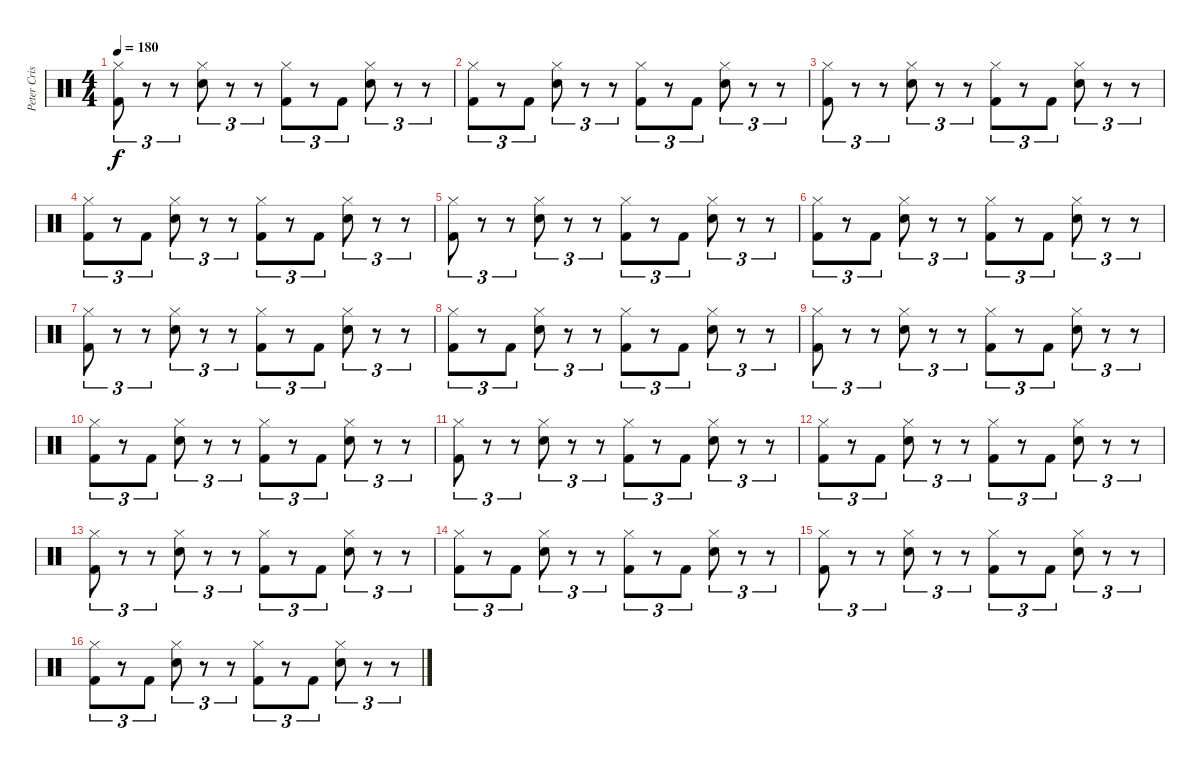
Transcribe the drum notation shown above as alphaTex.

\track ("Peter Criss" "Peter Cris") {instrument percussion}
\staff {score}
\articulation defaults
\ts (4 4)
\tempo 180
\clef neutral
\ks c
("Hi-Hat (closed)" "Kick (hit) 2").8{tu (3 2) dy f} r.8{tu (3 2)} r.8{tu (3 2)} ("Hi-Hat (closed)" "Electric Snare (hit)").8{tu (3 2)} r.8{tu (3 2)} r.8{tu (3 2)} ("Hi-Hat (closed)" "Kick (hit) 2").8{tu (3 2)} r.8{tu (3 2)} "Kick (hit) 2".8{tu (3 2)} ("Hi-Hat (closed)" "Electric Snare (hit)").8{tu (3 2)} r.8{tu (3 2)} r.8{tu (3 2)} |
("Hi-Hat (closed)" "Kick (hit) 2").8{tu (3 2)} r.8{tu (3 2)} "Kick (hit) 2".8{tu (3 2)} ("Hi-Hat (closed)" "Electric Snare (hit)").8{tu (3 2)} r.8{tu (3 2)} r.8{tu (3 2)} ("Hi-Hat (closed)" "Kick (hit) 2").8{tu (3 2)} r.8{tu (3 2)} "Kick (hit) 2".8{tu (3 2)} ("Hi-Hat (closed)" "Electric Snare (hit)").8{tu (3 2)} r.8{tu (3 2)} r.8{tu (3 2)} |
("Hi-Hat (closed)" "Kick (hit) 2").8{tu (3 2)} r.8{tu (3 2)} r.8{tu (3 2)} ("Hi-Hat (closed)" "Electric Snare (hit)").8{tu (3 2)} r.8{tu (3 2)} r.8{tu (3 2)} ("Hi-Hat (closed)" "Kick (hit) 2").8{tu (3 2)} r.8{tu (3 2)} "Kick (hit) 2".8{tu (3 2)} ("Hi-Hat (closed)" "Electric Snare (hit)").8{tu (3 2)} r.8{tu (3 2)} r.8{tu (3 2)} |
("Hi-Hat (closed)" "Kick (hit) 2").8{tu (3 2)} r.8{tu (3 2)} "Kick (hit) 2".8{tu (3 2)} ("Hi-Hat (closed)" "Electric Snare (hit)").8{tu (3 2)} r.8{tu (3 2)} r.8{tu (3 2)} ("Hi-Hat (closed)" "Kick (hit) 2").8{tu (3 2)} r.8{tu (3 2)} "Kick (hit) 2".8{tu (3 2)} ("Hi-Hat (closed)" "Electric Snare (hit)").8{tu (3 2)} r.8{tu (3 2)} r.8{tu (3 2)} |
("Hi-Hat (closed)" "Kick (hit) 2").8{tu (3 2)} r.8{tu (3 2)} r.8{tu (3 2)} ("Hi-Hat (closed)" "Electric Snare (hit)").8{tu (3 2)} r.8{tu (3 2)} r.8{tu (3 2)} ("Hi-Hat (closed)" "Kick (hit) 2").8{tu (3 2)} r.8{tu (3 2)} "Kick (hit) 2".8{tu (3 2)} ("Hi-Hat (closed)" "Electric Snare (hit)").8{tu (3 2)} r.8{tu (3 2)} r.8{tu (3 2)} |
("Hi-Hat (closed)" "Kick (hit) 2").8{tu (3 2)} r.8{tu (3 2)} "Kick (hit) 2".8{tu (3 2)} ("Hi-Hat (closed)" "Electric Snare (hit)").8{tu (3 2)} r.8{tu (3 2)} r.8{tu (3 2)} ("Hi-Hat (closed)" "Kick (hit) 2").8{tu (3 2)} r.8{tu (3 2)} "Kick (hit) 2".8{tu (3 2)} ("Hi-Hat (closed)" "Electric Snare (hit)").8{tu (3 2)} r.8{tu (3 2)} r.8{tu (3 2)} |
("Hi-Hat (closed)" "Kick (hit) 2").8{tu (3 2)} r.8{tu (3 2)} r.8{tu (3 2)} ("Hi-Hat (closed)" "Electric Snare (hit)").8{tu (3 2)} r.8{tu (3 2)} r.8{tu (3 2)} ("Hi-Hat (closed)" "Kick (hit) 2").8{tu (3 2)} r.8{tu (3 2)} "Kick (hit) 2".8{tu (3 2)} ("Hi-Hat (closed)" "Electric Snare (hit)").8{tu (3 2)} r.8{tu (3 2)} r.8{tu (3 2)} |
("Hi-Hat (closed)" "Kick (hit) 2").8{tu (3 2)} r.8{tu (3 2)} "Kick (hit) 2".8{tu (3 2)} ("Hi-Hat (closed)" "Electric Snare (hit)").8{tu (3 2)} r.8{tu (3 2)} r.8{tu (3 2)} ("Hi-Hat (closed)" "Kick (hit) 2").8{tu (3 2)} r.8{tu (3 2)} "Kick (hit) 2".8{tu (3 2)} ("Hi-Hat (closed)" "Electric Snare (hit)").8{tu (3 2)} r.8{tu (3 2)} r.8{tu (3 2)} |
("Hi-Hat (closed)" "Kick (hit) 2").8{tu (3 2)} r.8{tu (3 2)} r.8{tu (3 2)} ("Hi-Hat (closed)" "Electric Snare (hit)").8{tu (3 2)} r.8{tu (3 2)} r.8{tu (3 2)} ("Hi-Hat (closed)" "Kick (hit) 2").8{tu (3 2)} r.8{tu (3 2)} "Kick (hit) 2".8{tu (3 2)} ("Hi-Hat (closed)" "Electric Snare (hit)").8{tu (3 2)} r.8{tu (3 2)} r.8{tu (3 2)} |
("Hi-Hat (closed)" "Kick (hit) 2").8{tu (3 2)} r.8{tu (3 2)} "Kick (hit) 2".8{tu (3 2)} ("Hi-Hat (closed)" "Electric Snare (hit)").8{tu (3 2)} r.8{tu (3 2)} r.8{tu (3 2)} ("Hi-Hat (closed)" "Kick (hit) 2").8{tu (3 2)} r.8{tu (3 2)} "Kick (hit) 2".8{tu (3 2)} ("Hi-Hat (closed)" "Electric Snare (hit)").8{tu (3 2)} r.8{tu (3 2)} r.8{tu (3 2)} |
("Hi-Hat (closed)" "Kick (hit) 2").8{tu (3 2)} r.8{tu (3 2)} r.8{tu (3 2)} ("Hi-Hat (closed)" "Electric Snare (hit)").8{tu (3 2)} r.8{tu (3 2)} r.8{tu (3 2)} ("Hi-Hat (closed)" "Kick (hit) 2").8{tu (3 2)} r.8{tu (3 2)} "Kick (hit) 2".8{tu (3 2)} ("Hi-Hat (closed)" "Electric Snare (hit)").8{tu (3 2)} r.8{tu (3 2)} r.8{tu (3 2)} |
("Hi-Hat (closed)" "Kick (hit) 2").8{tu (3 2)} r.8{tu (3 2)} "Kick (hit) 2".8{tu (3 2)} ("Hi-Hat (closed)" "Electric Snare (hit)").8{tu (3 2)} r.8{tu (3 2)} r.8{tu (3 2)} ("Hi-Hat (closed)" "Kick (hit) 2").8{tu (3 2)} r.8{tu (3 2)} "Kick (hit) 2".8{tu (3 2)} ("Hi-Hat (closed)" "Electric Snare (hit)").8{tu (3 2)} r.8{tu (3 2)} r.8{tu (3 2)} |
("Hi-Hat (closed)" "Kick (hit) 2").8{tu (3 2)} r.8{tu (3 2)} r.8{tu (3 2)} ("Hi-Hat (closed)" "Electric Snare (hit)").8{tu (3 2)} r.8{tu (3 2)} r.8{tu (3 2)} ("Hi-Hat (closed)" "Kick (hit) 2").8{tu (3 2)} r.8{tu (3 2)} "Kick (hit) 2".8{tu (3 2)} ("Hi-Hat (closed)" "Electric Snare (hit)").8{tu (3 2)} r.8{tu (3 2)} r.8{tu (3 2)} |
("Hi-Hat (closed)" "Kick (hit) 2").8{tu (3 2)} r.8{tu (3 2)} "Kick (hit) 2".8{tu (3 2)} ("Hi-Hat (closed)" "Electric Snare (hit)").8{tu (3 2)} r.8{tu (3 2)} r.8{tu (3 2)} ("Hi-Hat (closed)" "Kick (hit) 2").8{tu (3 2)} r.8{tu (3 2)} "Kick (hit) 2".8{tu (3 2)} ("Hi-Hat (closed)" "Electric Snare (hit)").8{tu (3 2)} r.8{tu (3 2)} r.8{tu (3 2)} |
("Hi-Hat (closed)" "Kick (hit) 2").8{tu (3 2)} r.8{tu (3 2)} r.8{tu (3 2)} ("Hi-Hat (closed)" "Electric Snare (hit)").8{tu (3 2)} r.8{tu (3 2)} r.8{tu (3 2)} ("Hi-Hat (closed)" "Kick (hit) 2").8{tu (3 2)} r.8{tu (3 2)} "Kick (hit) 2".8{tu (3 2)} ("Hi-Hat (closed)" "Electric Snare (hit)").8{tu (3 2)} r.8{tu (3 2)} r.8{tu (3 2)} |
("Hi-Hat (closed)" "Kick (hit) 2").8{tu (3 2)} r.8{tu (3 2)} "Kick (hit) 2".8{tu (3 2)} ("Hi-Hat (closed)" "Electric Snare (hit)").8{tu (3 2)} r.8{tu (3 2)} r.8{tu (3 2)} ("Hi-Hat (closed)" "Kick (hit) 2").8{tu (3 2)} r.8{tu (3 2)} "Kick (hit) 2".8{tu (3 2)} ("Hi-Hat (closed)" "Electric Snare (hit)").8{tu (3 2)} r.8{tu (3 2)} r.8{tu (3 2)}
